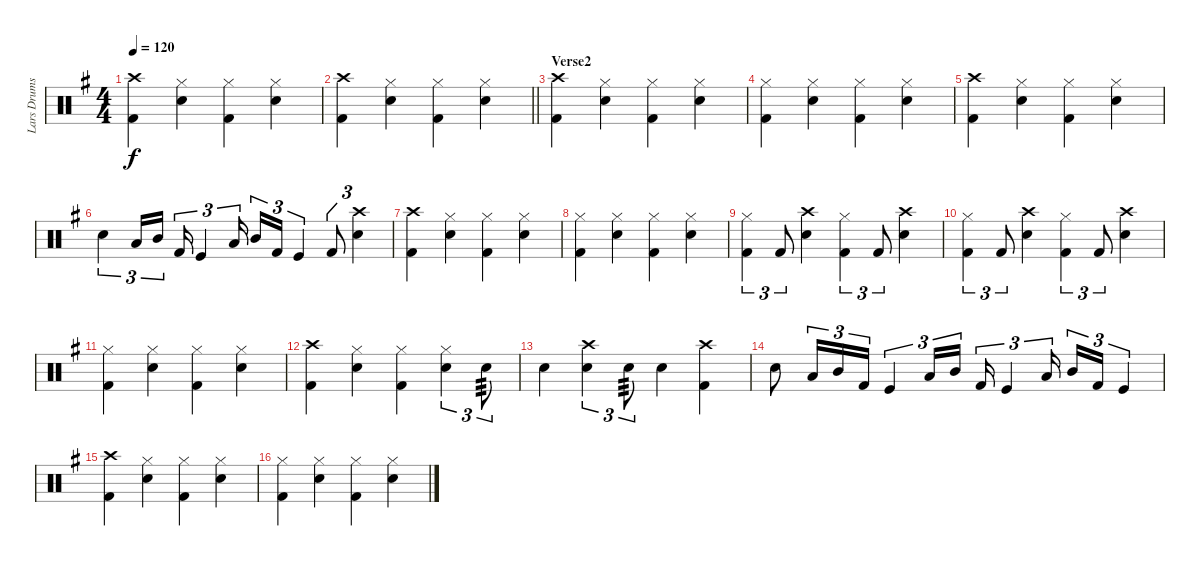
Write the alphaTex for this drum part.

\track ("Lars Drums" "Lars Drums") {instrument percussion}
\staff {score}
\articulation defaults
\ts (4 4)
\tempo 120
\clef neutral
\ks g
("Crash high (hit)" "Kick (hit) 2").4{dy f} ("Hi-Hat (closed)" "Snare (hit) 2").4 ("Hi-Hat (closed)" "Kick (hit) 2").4 ("Hi-Hat (closed)" "Snare (hit) 2").4 |
\barLineRight lightlight
("Crash high (hit)" "Kick (hit) 2").4 ("Hi-Hat (closed)" "Snare (hit) 2").4 ("Hi-Hat (closed)" "Kick (hit) 2").4 ("Hi-Hat (closed)" "Snare (hit) 2").4 |
\section ("" "Verse2")
("Crash high (hit)" "Kick (hit) 2").4 ("Hi-Hat (closed)" "Snare (hit) 2").4 ("Hi-Hat (closed)" "Kick (hit) 2").4 ("Hi-Hat (closed)" "Snare (hit) 2").4 |
("Hi-Hat (closed)" "Kick (hit) 2").4 ("Hi-Hat (closed)" "Snare (hit) 2").4 ("Hi-Hat (closed)" "Kick (hit) 2").4 ("Hi-Hat (closed)" "Snare (hit) 2").4 |
("Crash high (hit)" "Kick (hit) 2").4 ("Hi-Hat (closed)" "Snare (hit) 2").4 ("Hi-Hat (closed)" "Kick (hit) 2").4 ("Hi-Hat (closed)" "Snare (hit) 2").4 |
"Snare (hit) 2".4{tu (3 2)} "Low Tom (hit)".16{tu (3 2)} "Mid Tom (hit)".16{tu (3 2)} "Kick (hit) 2".16{tu (3 2)} "Kick (hit)".4{tu (3 2)} "Low Tom (hit)".16{tu (3 2)} "Mid Tom (hit)".16{tu (3 2)} "Kick (hit) 2".16{tu (3 2)} "Kick (hit)".4{tu (3 2)} "Kick (hit) 2".8{tu (3 2)} ("Crash high (hit)" "Snare (hit) 2").4{tu (3 2)} |
("Crash high (hit)" "Kick (hit) 2").4 ("Hi-Hat (closed)" "Snare (hit) 2").4 ("Hi-Hat (closed)" "Kick (hit) 2").4 ("Hi-Hat (closed)" "Snare (hit) 2").4 |
("Hi-Hat (closed)" "Kick (hit) 2").4 ("Hi-Hat (closed)" "Snare (hit) 2").4 ("Hi-Hat (closed)" "Kick (hit) 2").4 ("Hi-Hat (closed)" "Snare (hit) 2").4 |
("Hi-Hat (closed)" "Kick (hit) 2").4{tu (3 2)} "Kick (hit) 2".8{tu (3 2)} ("Crash high (hit)" "Snare (hit) 2").4 ("Hi-Hat (closed)" "Kick (hit) 2").4{tu (3 2)} "Kick (hit) 2".8{tu (3 2)} ("Crash high (hit)" "Snare (hit) 2").4 |
("Hi-Hat (closed)" "Kick (hit) 2").4{tu (3 2)} "Kick (hit) 2".8{tu (3 2)} ("Crash high (hit)" "Snare (hit) 2").4 ("Hi-Hat (closed)" "Kick (hit) 2").4{tu (3 2)} "Kick (hit) 2".8{tu (3 2)} ("Crash high (hit)" "Snare (hit) 2").4 |
("Hi-Hat (closed)" "Kick (hit) 2").4 ("Hi-Hat (closed)" "Snare (hit) 2").4 ("Hi-Hat (closed)" "Kick (hit) 2").4 ("Hi-Hat (closed)" "Snare (hit) 2").4 |
("Crash high (hit)" "Kick (hit) 2").4 ("Hi-Hat (closed)" "Snare (hit) 2").4 ("Hi-Hat (closed)" "Kick (hit) 2").4 ("Hi-Hat (closed)" "Snare (hit) 2").4{tu (3 2)} "Snare (hit) 2".8{tu (3 2) tp 3} |
"Snare (hit) 2".4 ("Crash high (hit)" "Snare (hit) 2").4{tu (3 2)} "Snare (hit) 2".8{tu (3 2) tp 3} "Snare (hit) 2".4 ("Crash high (hit)" "Kick (hit) 2").4 |
"Snare (hit) 2".8 "Low Tom (hit)".16{tu (3 2)} "Mid Tom (hit)".16{tu (3 2)} "Kick (hit) 2".16{tu (3 2)} "Kick (hit)".4{tu (3 2)} "Low Tom (hit)".16{tu (3 2)} "Mid Tom (hit)".16{tu (3 2)} "Kick (hit) 2".16{tu (3 2)} "Kick (hit)".4{tu (3 2)} "Low Tom (hit)".16{tu (3 2)} "Mid Tom (hit)".16{tu (3 2)} "Kick (hit) 2".16{tu (3 2)} "Kick (hit)".4{tu (3 2)} |
("Crash high (hit)" "Kick (hit) 2").4 ("Hi-Hat (closed)" "Snare (hit) 2").4 ("Hi-Hat (closed)" "Kick (hit) 2").4 ("Hi-Hat (closed)" "Snare (hit) 2").4 |
("Hi-Hat (closed)" "Kick (hit) 2").4 ("Hi-Hat (closed)" "Snare (hit) 2").4 ("Hi-Hat (closed)" "Kick (hit) 2").4 ("Hi-Hat (closed)" "Snare (hit) 2").4
